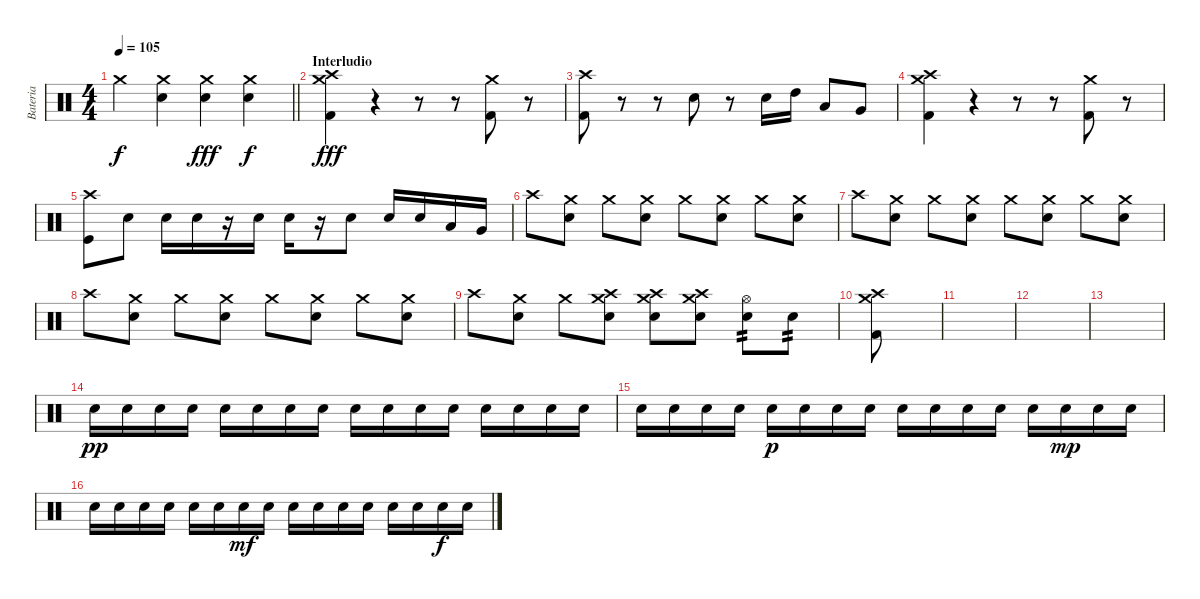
\track ("Bateria" "Bateria") {instrument percussion}
\staff {score}
\articulation defaults
\ts (4 4)
\tempo 105
\clef neutral
\barLineRight lightlight
\ks c "Crash medium (hit)".4{dy f}
("Crash medium (hit)" "Snare (hit) 2").4 ("Crash medium (hit)" "Snare (hit) 2").4{dy fff} ("Crash medium (hit)" "Snare (hit) 2").4{dy f} |
\section ("" "Interludio")
("Crash high (hit)" "Crash medium (hit)" "Kick (hit) 2").4{dy fff} r.4 r.8 r.8 ("Crash medium (hit)" "Kick (hit) 2").8 r.8 |
("Crash high (hit)" "Kick (hit) 2").8 r.8 r.8 "Snare (hit) 2".8 r.8 "Snare (hit) 2".16 "High Tom (hit)".16 "Low Tom (hit)".8 "Very Low Tom (hit)".8 |
("Crash high (hit)" "Crash medium (hit)" "Kick (hit) 2").4 r.4 r.8 r.8 ("Crash medium (hit)" "Kick (hit) 2").8 r.8 |
("Crash high (hit)" "Kick (hit)").8 "Snare (hit) 2".8 "Snare (hit) 2".16 "Snare (hit) 2".16 r.16 "Snare (hit) 2".16 "Snare (hit) 2".16 r.16 "Snare (hit) 2".8 "Snare (hit) 2".16 "Snare (hit) 2".16 "Low Tom (hit)".16 "Very Low Tom (hit)".16 |
"Crash high (hit)".8 ("Crash medium (hit)" "Snare (hit) 2").8 "Crash medium (hit)".8 ("Crash medium (hit)" "Snare (hit) 2").8 "Crash medium (hit)".8 ("Crash medium (hit)" "Snare (hit) 2").8 "Crash medium (hit)".8 ("Crash medium (hit)" "Snare (hit) 2").8 |
"Crash high (hit)".8 ("Crash medium (hit)" "Snare (hit) 2").8 "Crash medium (hit)".8 ("Crash medium (hit)" "Snare (hit) 2").8 "Crash medium (hit)".8 ("Crash medium (hit)" "Snare (hit) 2").8 "Crash medium (hit)".8 ("Crash medium (hit)" "Snare (hit) 2").8 |
"Crash high (hit)".8 ("Crash medium (hit)" "Snare (hit) 2").8 "Crash medium (hit)".8 ("Crash medium (hit)" "Snare (hit) 2").8 "Crash medium (hit)".8 ("Crash medium (hit)" "Snare (hit) 2").8 "Crash medium (hit)".8 ("Crash medium (hit)" "Snare (hit) 2").8 |
"Crash high (hit)".8 ("Crash medium (hit)" "Snare (hit) 2").8 "Crash medium (hit)".8 ("Crash medium (hit)" "Crash high (hit)" "Snare (hit) 2").8 ("Crash medium (hit)" "Crash high (hit)" "Snare (hit) 2").8 ("Crash medium (hit)" "Crash high (hit)" "Snare (hit) 2").8 ("Hi-Hat (open)" "Snare (hit) 2").8{tp 2} "Snare (hit) 2".8{tp 2} |
("Crash high (hit)" "Crash medium (hit)" "Kick (hit) 2").8 |
|
|
|
"Snare (hit) 2".16{dy pp} "Snare (hit) 2".16 "Snare (hit) 2".16 "Snare (hit) 2".16 "Snare (hit) 2".16 "Snare (hit) 2".16 "Snare (hit) 2".16 "Snare (hit) 2".16 "Snare (hit) 2".16 "Snare (hit) 2".16 "Snare (hit) 2".16 "Snare (hit) 2".16 "Snare (hit) 2".16 "Snare (hit) 2".16 "Snare (hit) 2".16 "Snare (hit) 2".16 |
"Snare (hit) 2".16 "Snare (hit) 2".16 "Snare (hit) 2".16 "Snare (hit) 2".16 "Snare (hit) 2".16{dy p} "Snare (hit) 2".16 "Snare (hit) 2".16 "Snare (hit) 2".16 "Snare (hit) 2".16 "Snare (hit) 2".16 "Snare (hit) 2".16 "Snare (hit) 2".16 "Snare (hit) 2".16 "Snare (hit) 2".16{dy mp} "Snare (hit) 2".16 "Snare (hit) 2".16 |
"Snare (hit) 2".16 "Snare (hit) 2".16 "Snare (hit) 2".16 "Snare (hit) 2".16 "Snare (hit) 2".16 "Snare (hit) 2".16 "Snare (hit) 2".16{dy mf} "Snare (hit) 2".16 "Snare (hit) 2".16 "Snare (hit) 2".16 "Snare (hit) 2".16 "Snare (hit) 2".16 "Snare (hit) 2".16 "Snare (hit) 2".16 "Snare (hit) 2".16{dy f} "Snare (hit) 2".16
